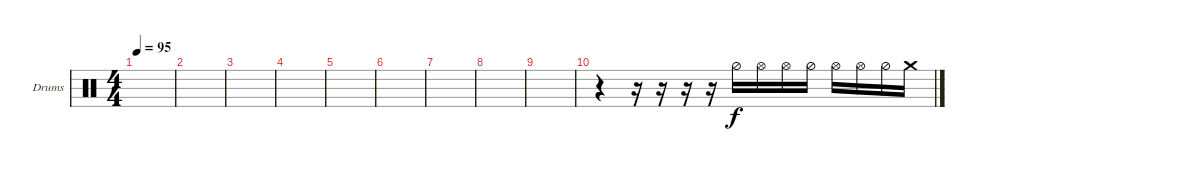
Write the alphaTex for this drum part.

\defaultSystemsLayout 4
\bracketExtendMode groupsimilarinstruments
\firstSystemTrackNameOrientation horizontal
\otherSystemsTrackNameOrientation horizontal
\track ("Drumkit" "Drums") {instrument percussion}
\staff {score}
\articulation defaults
\ts (4 4)
\tempo 95
\clef neutral
\scale
0.333333
\ks c
|
\scale
0.333333 |
\scale
0.333333 |
\scale
0.333333 |
\scale
0.333333 |
\scale
0.333333 |
\scale
0.333333 |
\scale
0.333333 |
\scale
0.333333 |
\scale
0.333333 r.4 r.16 r.16 r.16 r.16 "Hi-Hat (half)".16 "Hi-Hat (open)".16 "Hi-Hat (open)".16 "Hi-Hat (half)".16 "Hi-Hat (open)".16 "Hi-Hat (open)".16 "Hi-Hat (half)".16 "Crash medium (hit)".16 |
\scale
0.333333 |
\scale
0.333333 |
\scale
0.333333 |
\scale
0.333333 |
\scale
0.333333 |
\scale
0.333333
